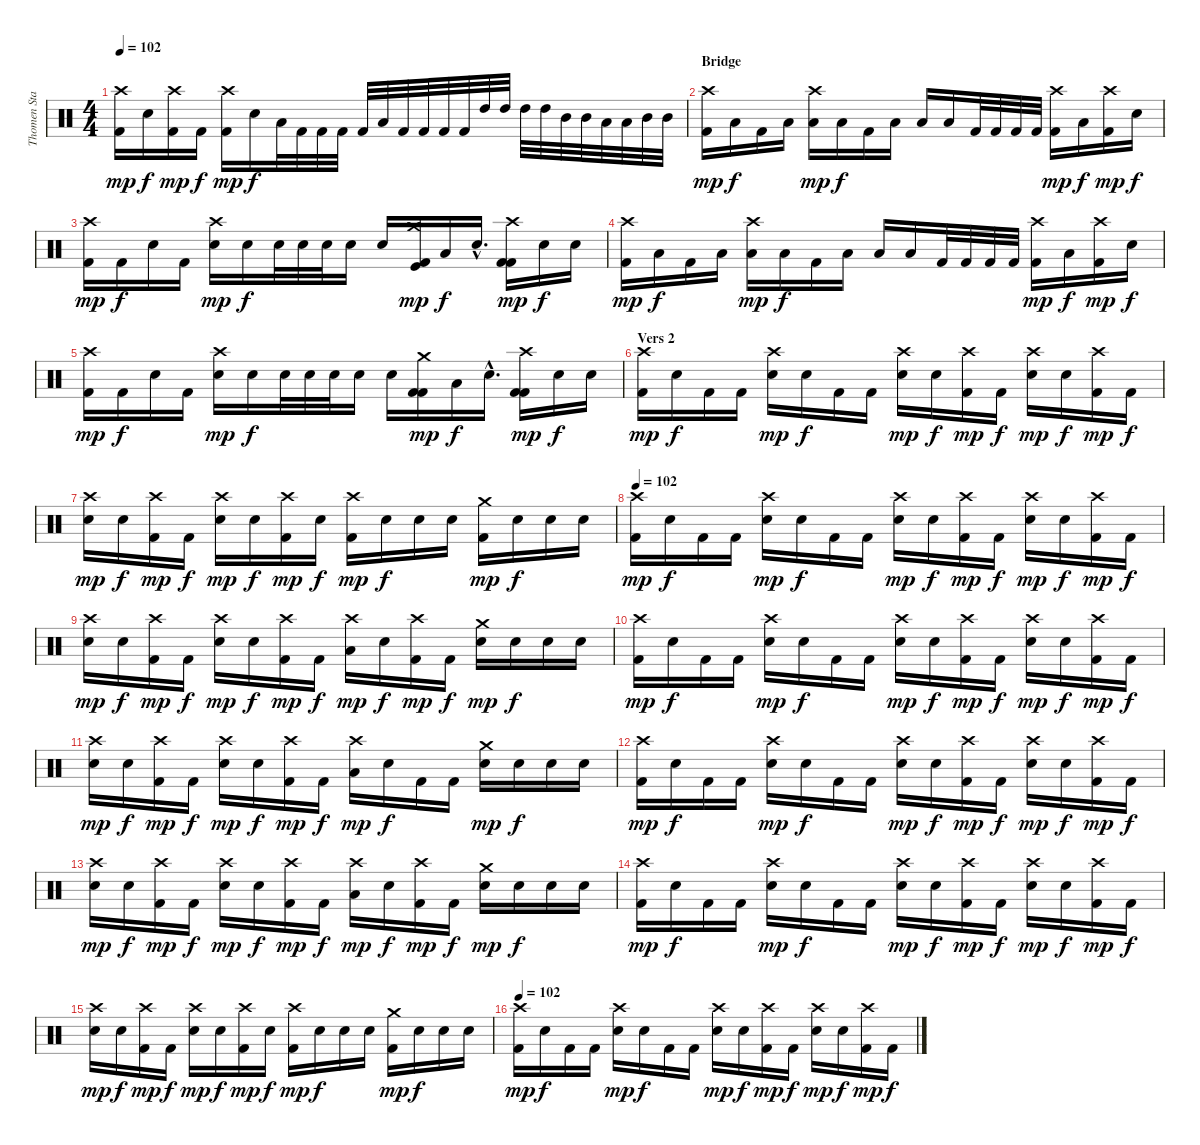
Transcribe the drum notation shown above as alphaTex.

\track ("Thomen Stauch" "Thomen Sta") {instrument percussion}
\staff {score}
\articulation defaults
\ts (4 4)
\tempo 102
\clef neutral
\ks c
("Crash high (hit)" "Kick (hit) 2").16{dy mp} "Snare (hit)"{x}.16{dy f} ("Crash high (hit)" "Kick (hit) 2").16{dy mp} "Kick (hit) 2"{x}.16{dy f} ("Crash high (hit)" "Kick (hit) 2").16{dy mp} "Snare (hit)"{x}.16{dy f} "Low Floor Tom (hit)".32 "Kick (hit) 2".32 "Kick (hit) 2".32 "Kick (hit) 2".32 "Kick (hit) 2".32 "Low Floor Tom (hit)".32 "Kick (hit) 2".32 "Kick (hit) 2".32 "Kick (hit) 2".32 "Kick (hit) 2".32 "High Tom (hit)".32 "High Tom (hit)".32 "High Tom (hit)".32 "High Tom (hit)".32 "Mid Tom (hit)".32 "Mid Tom (hit)".32 "Low Floor Tom (hit)".32 "Low Floor Tom (hit)".32 "Mid Tom (hit)".32 "Mid Tom (hit)".32 |
\section ("" "Bridge")
("Crash high (hit)" "Kick (hit) 2").16{dy mp} "Low Floor Tom (hit)"{x}.16{dy f} "Kick (hit) 2".16 "Low Floor Tom (hit)"{x}.16 ("Crash high (hit)" "Low Floor Tom (hit)"{x}).16{dy mp} "Low Floor Tom (hit)"{x}.16{dy f} "Kick (hit) 2".16 "Low Floor Tom (hit)"{x}.16 "Low Floor Tom (hit)"{x}.16 "Low Floor Tom (hit)"{x}.16 "Kick (hit) 2".32 "Kick (hit) 2".32 "Kick (hit) 2".32 "Kick (hit) 2".32 ("Crash high (hit)" "Kick (hit) 2").16{dy mp} "Low Floor Tom (hit)"{x}.16{dy f} ("Crash high (hit)" "Kick (hit) 2").16{dy mp} "Snare (hit)"{x}.16{dy f} |
("Crash high (hit)" "Kick (hit) 2").16{dy mp} "Kick (hit) 2".16{dy f} "Snare (hit)"{x}.16 "Kick (hit) 2".16 ("Crash high (hit)" "Snare (hit) 2").16{dy mp} "Snare (hit) 2"{x}.16{dy f} "Snare (hit) 2".32 "Snare (hit) 2".32 "Snare (hit) 2".32 "Snare (hit) 2".16 "Snare (hit) 2"{x}.16 ("Crash medium (hit)" "Kick (hit)" "Kick (hit) 2").16{dy mp} "Low Floor Tom (hit)"{x}.16{dy f} "Snare (hit)"{hac x}.16{d} ("Crash high (hit)" "Kick (hit) 2" "Kick (hit) 2").16{dy mp} "Snare (hit)"{x}.16{dy f} "Snare (hit)"{x}.16 |
("Crash high (hit)" "Kick (hit) 2").16{dy mp} "Low Floor Tom (hit)"{x}.16{dy f} "Kick (hit) 2".16 "Low Floor Tom (hit)"{x}.16 ("Crash high (hit)" "Low Floor Tom (hit)"{x}).16{dy mp} "Low Floor Tom (hit)"{x}.16{dy f} "Kick (hit) 2".16 "Low Floor Tom (hit)"{x}.16 "Low Floor Tom (hit)"{x}.16 "Low Floor Tom (hit)"{x}.16 "Kick (hit) 2".32 "Kick (hit) 2".32 "Kick (hit) 2".32 "Kick (hit) 2".32 ("Crash high (hit)" "Kick (hit) 2").16{dy mp} "Low Floor Tom (hit)"{x}.16{dy f} ("Crash high (hit)" "Kick (hit) 2").16{dy mp} "Snare (hit)"{x}.16{dy f} |
("Crash high (hit)" "Kick (hit) 2").16{dy mp} "Kick (hit) 2".16{dy f} "Snare (hit)"{x}.16 "Kick (hit) 2".16 ("Crash high (hit)" "Snare (hit) 2").16{dy mp} "Snare (hit) 2"{x}.16{dy f} "Snare (hit) 2".32 "Snare (hit) 2".32 "Snare (hit) 2".32 "Snare (hit) 2".16 "Snare (hit) 2"{x}.16 ("Crash medium (hit)" "Kick (hit) 2" "Kick (hit) 2").16{dy mp} "Low Floor Tom (hit)"{x}.16{dy f} "Snare (hit)"{hac x}.16{d} ("Crash high (hit)" "Kick (hit) 2" "Kick (hit) 2").16{dy mp} "Snare (hit)"{x}.16{dy f} "Snare (hit)"{x}.16 |
\section ("" "Vers 2")
("Crash high (hit)" "Kick (hit) 2").16{dy mp} "Snare (hit)"{x}.16{dy f} "Kick (hit) 2".16 "Kick (hit) 2".16 ("Crash high (hit)" "Snare (hit) 2").16{dy mp} "Snare (hit)"{x}.16{dy f} "Kick (hit) 2".16 "Kick (hit) 2".16 ("Crash high (hit)" "Snare (hit)"{x}).16{dy mp} "Snare (hit)"{x}.16{dy f} ("Crash high (hit)" "Kick (hit) 2").16{dy mp} "Kick (hit) 2".16{dy f} ("Crash high (hit)" "Snare (hit) 2").16{dy mp} "Snare (hit)"{x}.16{dy f} ("Crash high (hit)" "Kick (hit) 2").16{dy mp} "Kick (hit) 2".16{dy f} |
("Crash high (hit)" "Snare (hit)"{x}).16{dy mp} "Snare (hit)"{x}.16{dy f} ("Crash high (hit)" "Kick (hit) 2").16{dy mp} "Kick (hit) 2".16{dy f} ("Crash high (hit)" "Snare (hit) 2").16{dy mp} "Snare (hit)"{x}.16{dy f} ("Crash high (hit)" "Kick (hit) 2").16{dy mp} "Snare (hit)"{x}.16{dy f} ("Crash high (hit)" "Kick (hit) 2").16{dy mp} "Snare (hit)"{x}.16{dy f} "Snare (hit)"{x}.16 "Snare (hit)"{x}.16 ("Crash medium (hit)" "Kick (hit) 2").16{dy mp} "Snare (hit)"{x}.16{dy f} "Snare (hit)"{x}.16 "Snare (hit)"{x}.16 |
\tempo 102
("Crash high (hit)" "Kick (hit) 2").16{dy mp} "Snare (hit)"{x}.16{dy f} "Kick (hit) 2".16 "Kick (hit) 2".16 ("Crash high (hit)" "Snare (hit) 2").16{dy mp} "Snare (hit)"{x}.16{dy f} "Kick (hit) 2".16 "Kick (hit) 2".16 ("Crash high (hit)" "Snare (hit)"{x}).16{dy mp} "Snare (hit)"{x}.16{dy f} ("Crash high (hit)" "Kick (hit) 2").16{dy mp} "Kick (hit) 2".16{dy f} ("Crash high (hit)" "Snare (hit) 2").16{dy mp} "Snare (hit)"{x}.16{dy f} ("Crash high (hit)" "Kick (hit) 2").16{dy mp} "Kick (hit) 2".16{dy f} |
("Crash high (hit)" "Snare (hit)"{x}).16{dy mp} "Snare (hit)"{x}.16{dy f} ("Crash high (hit)" "Kick (hit) 2").16{dy mp} "Kick (hit) 2".16{dy f} ("Crash high (hit)" "Snare (hit) 2").16{dy mp} "Snare (hit)"{x}.16{dy f} ("Crash high (hit)" "Kick (hit) 2").16{dy mp} "Kick (hit) 2".16{dy f} ("Crash high (hit)" "Low Floor Tom (hit)"{x}).16{dy mp} "Snare (hit)"{x}.16{dy f} ("Crash high (hit)" "Kick (hit) 2").16{dy mp} "Kick (hit) 2".16{dy f} ("Crash medium (hit)" "Snare (hit) 2").16{dy mp} "Snare (hit)"{x}.16{dy f} "Snare (hit) 2".16 "Snare (hit)"{x}.16 |
("Crash high (hit)" "Kick (hit) 2").16{dy mp} "Snare (hit)"{x}.16{dy f} "Kick (hit) 2".16 "Kick (hit) 2".16 ("Crash high (hit)" "Snare (hit) 2").16{dy mp} "Snare (hit)"{x}.16{dy f} "Kick (hit) 2".16 "Kick (hit) 2".16 ("Crash high (hit)" "Snare (hit)"{x}).16{dy mp} "Snare (hit)"{x}.16{dy f} ("Crash high (hit)" "Kick (hit) 2").16{dy mp} "Kick (hit) 2".16{dy f} ("Crash high (hit)" "Snare (hit) 2").16{dy mp} "Snare (hit)"{x}.16{dy f} ("Crash high (hit)" "Kick (hit) 2").16{dy mp} "Kick (hit) 2".16{dy f} |
("Crash high (hit)" "Snare (hit)"{x}).16{dy mp} "Snare (hit)"{x}.16{dy f} ("Crash high (hit)" "Kick (hit) 2").16{dy mp} "Kick (hit) 2".16{dy f} ("Crash high (hit)" "Snare (hit) 2").16{dy mp} "Snare (hit)"{x}.16{dy f} ("Crash high (hit)" "Kick (hit) 2").16{dy mp} "Kick (hit) 2".16{dy f} ("Crash high (hit)" "Low Floor Tom (hit)"{x}).16{dy mp} "Snare (hit)"{x}.16{dy f} "Kick (hit) 2".16 "Kick (hit) 2".16 ("Crash medium (hit)" "Snare (hit) 2").16{dy mp} "Snare (hit)"{x}.16{dy f} "Snare (hit) 2".16 "Snare (hit)"{x}.16 |
("Crash high (hit)" "Kick (hit) 2").16{dy mp} "Snare (hit)"{x}.16{dy f} "Kick (hit) 2".16 "Kick (hit) 2".16 ("Crash high (hit)" "Snare (hit) 2").16{dy mp} "Snare (hit)"{x}.16{dy f} "Kick (hit) 2".16 "Kick (hit) 2".16 ("Crash high (hit)" "Snare (hit)"{x}).16{dy mp} "Snare (hit)"{x}.16{dy f} ("Crash high (hit)" "Kick (hit) 2").16{dy mp} "Kick (hit) 2".16{dy f} ("Crash high (hit)" "Snare (hit) 2").16{dy mp} "Snare (hit)"{x}.16{dy f} ("Crash high (hit)" "Kick (hit) 2").16{dy mp} "Kick (hit) 2".16{dy f} |
("Crash high (hit)" "Snare (hit)"{x}).16{dy mp} "Snare (hit)"{x}.16{dy f} ("Crash high (hit)" "Kick (hit) 2").16{dy mp} "Kick (hit) 2".16{dy f} ("Crash high (hit)" "Snare (hit) 2").16{dy mp} "Snare (hit)"{x}.16{dy f} ("Crash high (hit)" "Kick (hit) 2").16{dy mp} "Kick (hit) 2".16{dy f} ("Crash high (hit)" "Low Floor Tom (hit)"{x}).16{dy mp} "Snare (hit)"{x}.16{dy f} ("Crash high (hit)" "Kick (hit) 2").16{dy mp} "Kick (hit) 2".16{dy f} ("Crash medium (hit)" "Snare (hit) 2").16{dy mp} "Snare (hit)"{x}.16{dy f} "Snare (hit) 2".16 "Snare (hit)"{x}.16 |
("Crash high (hit)" "Kick (hit) 2").16{dy mp} "Snare (hit)"{x}.16{dy f} "Kick (hit) 2".16 "Kick (hit) 2".16 ("Crash high (hit)" "Snare (hit) 2").16{dy mp} "Snare (hit)"{x}.16{dy f} "Kick (hit) 2".16 "Kick (hit) 2".16 ("Crash high (hit)" "Snare (hit)"{x}).16{dy mp} "Snare (hit)"{x}.16{dy f} ("Crash high (hit)" "Kick (hit) 2").16{dy mp} "Kick (hit) 2".16{dy f} ("Crash high (hit)" "Snare (hit) 2").16{dy mp} "Snare (hit)"{x}.16{dy f} ("Crash high (hit)" "Kick (hit) 2").16{dy mp} "Kick (hit) 2".16{dy f} |
("Crash high (hit)" "Snare (hit)"{x}).16{dy mp} "Snare (hit)"{x}.16{dy f} ("Crash high (hit)" "Kick (hit) 2").16{dy mp} "Kick (hit) 2".16{dy f} ("Crash high (hit)" "Snare (hit) 2").16{dy mp} "Snare (hit)"{x}.16{dy f} ("Crash high (hit)" "Kick (hit) 2").16{dy mp} "Snare (hit)"{x}.16{dy f} ("Crash high (hit)" "Kick (hit) 2").16{dy mp} "Snare (hit)"{x}.16{dy f} "Snare (hit)"{x}.16 "Snare (hit)"{x}.16 ("Crash medium (hit)" "Kick (hit) 2").16{dy mp} "Snare (hit)"{x}.16{dy f} "Snare (hit)"{x}.16 "Snare (hit)"{x}.16 |
\tempo 102
("Crash high (hit)" "Kick (hit) 2").16{dy mp} "Snare (hit)"{x}.16{dy f} "Kick (hit) 2".16 "Kick (hit) 2".16 ("Crash high (hit)" "Snare (hit) 2").16{dy mp} "Snare (hit)"{x}.16{dy f} "Kick (hit) 2".16 "Kick (hit) 2".16 ("Crash high (hit)" "Snare (hit)"{x}).16{dy mp} "Snare (hit)"{x}.16{dy f} ("Crash high (hit)" "Kick (hit) 2").16{dy mp} "Kick (hit) 2".16{dy f} ("Crash high (hit)" "Snare (hit) 2").16{dy mp} "Snare (hit)"{x}.16{dy f} ("Crash high (hit)" "Kick (hit) 2").16{dy mp} "Kick (hit) 2".16{dy f}
